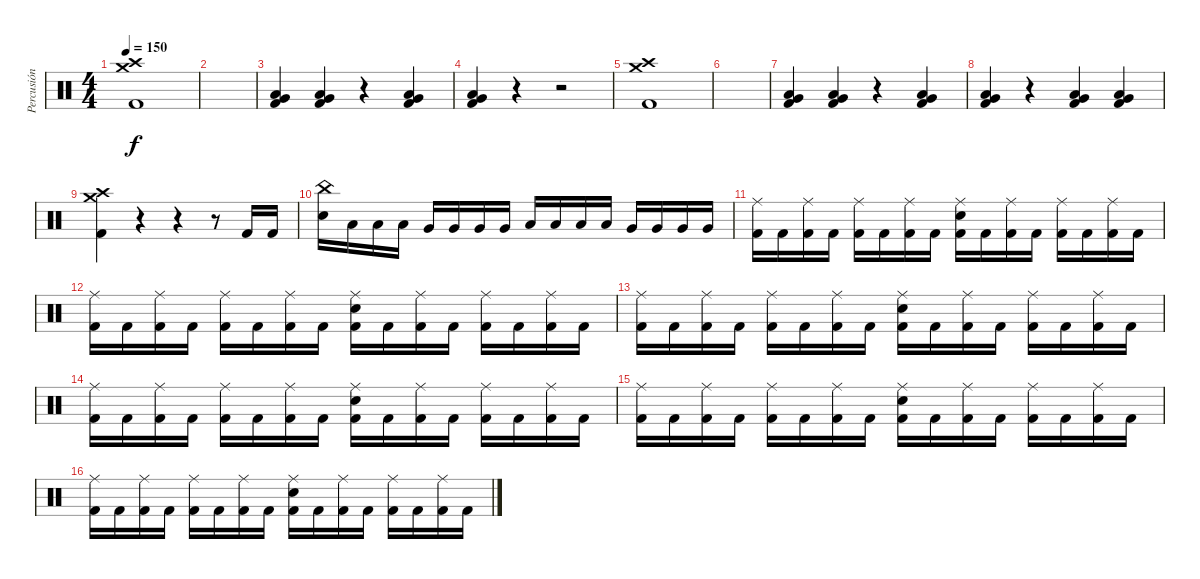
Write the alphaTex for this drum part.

\track ("Percusión" "Percusión") {instrument percussion}
\staff {score}
\articulation defaults
\ts (4 4)
\tempo 150
\clef neutral
\ks c
("Crash high (hit)" "Kick (hit) 2" "Crash medium (hit)").1{dy f} |
|
("Low Floor Tom (hit)" "Kick (hit) 2" "Very Low Tom (hit)").4 ("Low Floor Tom (hit)" "Kick (hit) 2" "Very Low Tom (hit)").4 r.4 ("Low Floor Tom (hit)" "Kick (hit) 2" "Very Low Tom (hit)").4 |
("Low Floor Tom (hit)" "Kick (hit) 2" "Very Low Tom (hit)").4 r.4 r.2 |
("Crash high (hit)" "Kick (hit) 2" "Crash medium (hit)").1 |
|
("Low Floor Tom (hit)" "Kick (hit) 2" "Very Low Tom (hit)").4 ("Low Floor Tom (hit)" "Kick (hit) 2" "Very Low Tom (hit)").4 r.4 ("Low Floor Tom (hit)" "Kick (hit) 2" "Very Low Tom (hit)").4 |
("Low Floor Tom (hit)" "Kick (hit) 2" "Very Low Tom (hit)").4 r.4 ("Low Floor Tom (hit)" "Kick (hit) 2" "Very Low Tom (hit)").4 ("Low Floor Tom (hit)" "Kick (hit) 2" "Very Low Tom (hit)").4 |
("Crash high (hit)" "Kick (hit) 2" "Crash medium (hit)").4 r.4 r.4 r.8 "Kick (hit) 2".16 "Kick (hit) 2".16 |
("China (hit)" "Snare (hit) 2").16 "Low Tom (hit)".16 "Low Tom (hit)".16 "Low Tom (hit)".16 "Very Low Tom (hit)".16 "Very Low Tom (hit)".16 "Very Low Tom (hit)".16 "Very Low Tom (hit)".16 "Low Floor Tom (hit)".16 "Low Floor Tom (hit)".16 "Low Floor Tom (hit)".16 "Low Floor Tom (hit)".16 "Very Low Tom (hit)".16 "Very Low Tom (hit)".16 "Very Low Tom (hit)".16 "Very Low Tom (hit)".16 |
("Kick (hit) 2" "Ride (middle)").16 "Kick (hit) 2".16 ("Kick (hit) 2" "Ride (middle)").16 "Kick (hit) 2".16 ("Kick (hit) 2" "Ride (middle)").16 "Kick (hit) 2".16 ("Kick (hit) 2" "Ride (middle)").16 "Kick (hit) 2".16 ("Kick (hit) 2" "Ride (middle)" "Snare (hit) 2").16 "Kick (hit) 2".16 ("Kick (hit) 2" "Ride (middle)").16 "Kick (hit) 2".16 ("Kick (hit) 2" "Ride (middle)").16 "Kick (hit) 2".16 ("Kick (hit) 2" "Ride (middle)").16 "Kick (hit) 2".16 |
("Kick (hit) 2" "Ride (middle)").16 "Kick (hit) 2".16 ("Kick (hit) 2" "Ride (middle)").16 "Kick (hit) 2".16 ("Kick (hit) 2" "Ride (middle)").16 "Kick (hit) 2".16 ("Kick (hit) 2" "Ride (middle)").16 "Kick (hit) 2".16 ("Kick (hit) 2" "Ride (middle)" "Snare (hit) 2").16 "Kick (hit) 2".16 ("Kick (hit) 2" "Ride (middle)").16 "Kick (hit) 2".16 ("Kick (hit) 2" "Ride (middle)").16 "Kick (hit) 2".16 ("Kick (hit) 2" "Ride (middle)").16 "Kick (hit) 2".16 |
("Kick (hit) 2" "Ride (middle)").16 "Kick (hit) 2".16 ("Kick (hit) 2" "Ride (middle)").16 "Kick (hit) 2".16 ("Kick (hit) 2" "Ride (middle)").16 "Kick (hit) 2".16 ("Kick (hit) 2" "Ride (middle)").16 "Kick (hit) 2".16 ("Kick (hit) 2" "Ride (middle)" "Snare (hit) 2").16 "Kick (hit) 2".16 ("Kick (hit) 2" "Ride (middle)").16 "Kick (hit) 2".16 ("Kick (hit) 2" "Ride (middle)").16 "Kick (hit) 2".16 ("Kick (hit) 2" "Ride (middle)").16 "Kick (hit) 2".16 |
("Kick (hit) 2" "Ride (middle)").16 "Kick (hit) 2".16 ("Kick (hit) 2" "Ride (middle)").16 "Kick (hit) 2".16 ("Kick (hit) 2" "Ride (middle)").16 "Kick (hit) 2".16 ("Kick (hit) 2" "Ride (middle)").16 "Kick (hit) 2".16 ("Kick (hit) 2" "Ride (middle)" "Snare (hit) 2").16 "Kick (hit) 2".16 ("Kick (hit) 2" "Ride (middle)").16 "Kick (hit) 2".16 ("Kick (hit) 2" "Ride (middle)").16 "Kick (hit) 2".16 ("Kick (hit) 2" "Ride (middle)").16 "Kick (hit) 2".16 |
("Kick (hit) 2" "Ride (middle)").16 "Kick (hit) 2".16 ("Kick (hit) 2" "Ride (middle)").16 "Kick (hit) 2".16 ("Kick (hit) 2" "Ride (middle)").16 "Kick (hit) 2".16 ("Kick (hit) 2" "Ride (middle)").16 "Kick (hit) 2".16 ("Kick (hit) 2" "Ride (middle)" "Snare (hit) 2").16 "Kick (hit) 2".16 ("Kick (hit) 2" "Ride (middle)").16 "Kick (hit) 2".16 ("Kick (hit) 2" "Ride (middle)").16 "Kick (hit) 2".16 ("Kick (hit) 2" "Ride (middle)").16 "Kick (hit) 2".16 |
("Kick (hit) 2" "Ride (middle)").16 "Kick (hit) 2".16 ("Kick (hit) 2" "Ride (middle)").16 "Kick (hit) 2".16 ("Kick (hit) 2" "Ride (middle)").16 "Kick (hit) 2".16 ("Kick (hit) 2" "Ride (middle)").16 "Kick (hit) 2".16 ("Kick (hit) 2" "Ride (middle)" "Snare (hit) 2").16 "Kick (hit) 2".16 ("Kick (hit) 2" "Ride (middle)").16 "Kick (hit) 2".16 ("Kick (hit) 2" "Ride (middle)").16 "Kick (hit) 2".16 ("Kick (hit) 2" "Ride (middle)").16 "Kick (hit) 2".16
